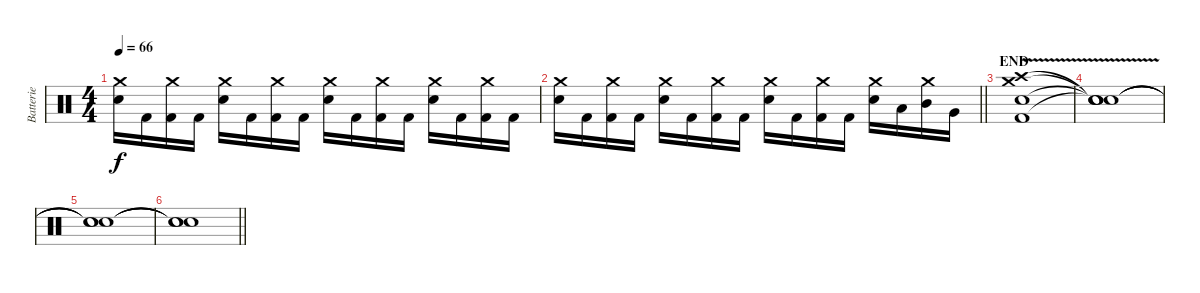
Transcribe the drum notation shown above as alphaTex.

\track ("Batterie" "Batterie") {instrument percussion}
\staff {score}
\articulation defaults
\ts (4 4)
\tempo 66
\clef neutral
\ks c
("Crash medium (hit)" "Electric Snare (hit)").16{dy f} "Kick (hit) 2".16 ("Crash medium (hit)" "Kick (hit) 2").16 "Kick (hit) 2".16 ("Crash medium (hit)" "Electric Snare (hit)").16 "Kick (hit) 2".16 ("Crash medium (hit)" "Kick (hit) 2").16 "Kick (hit) 2".16 ("Crash medium (hit)" "Electric Snare (hit)").16 "Kick (hit) 2".16 ("Crash medium (hit)" "Kick (hit) 2").16 "Kick (hit) 2".16 ("Crash medium (hit)" "Electric Snare (hit)").16 "Kick (hit) 2".16 ("Crash medium (hit)" "Kick (hit) 2").16 "Kick (hit) 2".16 |
\barLineRight lightlight
("Crash medium (hit)" "Electric Snare (hit)").16 "Kick (hit) 2".16 ("Crash medium (hit)" "Kick (hit) 2").16 "Kick (hit) 2".16 ("Crash medium (hit)" "Electric Snare (hit)").16 "Kick (hit) 2".16 ("Crash medium (hit)" "Kick (hit) 2").16 "Kick (hit) 2".16 ("Crash medium (hit)" "Electric Snare (hit)").16 "Kick (hit) 2".16 ("Crash medium (hit)" "Kick (hit) 2").16 "Kick (hit) 2".16 ("Crash medium (hit)" "Electric Snare (hit)").16 "Low Tom (hit)".16 ("Crash medium (hit)" "Mid Tom (hit)").16 "Very Low Tom (hit)".16 |
\section ("" "END")
("Crash medium (hit)" "Crash high (hit)"{v} "Electric Snare (hit)" "Kick (hit) 2").1 |
("Snare (hit)"{t} "Snare (hit)"{t} "Snare (hit)"{t} "Snare (hit)"{t}).1 |
("Snare (hit)"{t} "Snare (hit)"{t} "Snare (hit)"{t}).1 |
\barLineRight lightlight
("Snare (hit)"{t} "Snare (hit)"{t} "Snare (hit)"{t}).1
